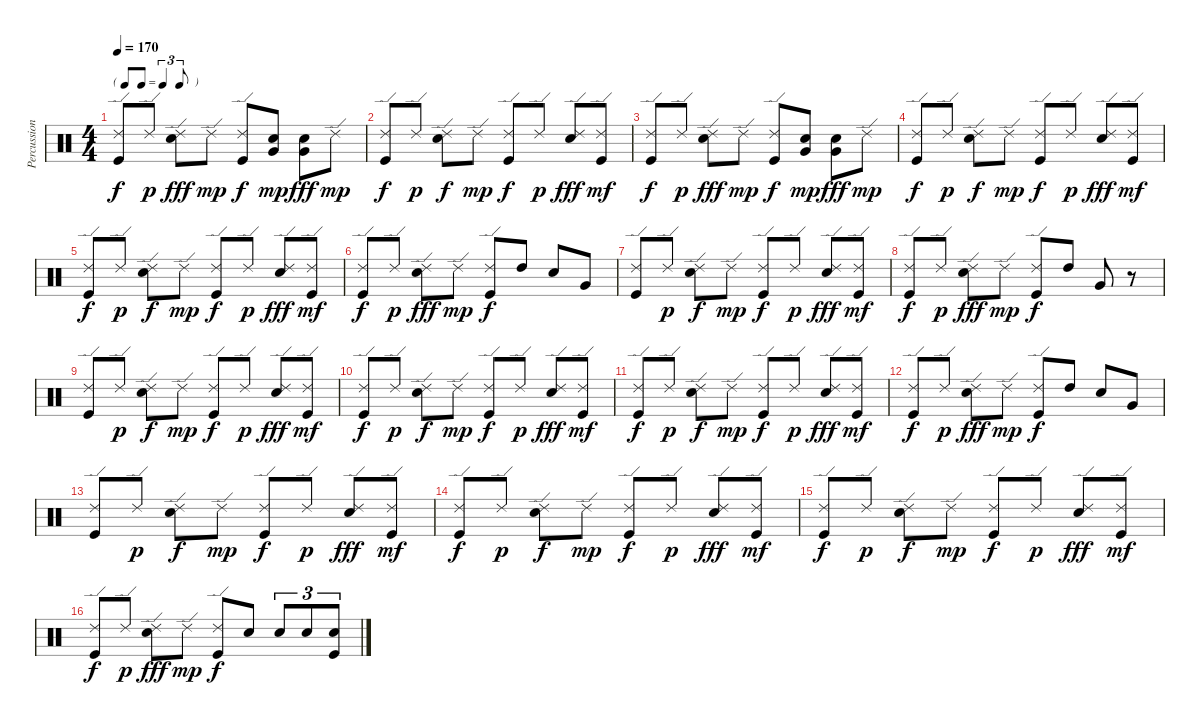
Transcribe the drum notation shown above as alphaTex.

\track ("Percussion" "Percussion") {instrument percussion}
\staff {score}
\articulation defaults
\ts (4 4)
\tf triplet8th
\tempo 170
\clef neutral
\ks c
("Ride (edge) 2" "Kick (hit)").8{dy f} "Ride (edge) 2".8{dy p} ("Ride (edge) 2" "Snare (hit) 2").8{dy fff} "Ride (edge) 2".8{dy mp} ("Ride (edge) 2" "Kick (hit)").8{dy f} ("Very Low Tom (hit)" "Snare (hit) 2").8{dy mp} ("Very Low Tom (hit)" "Snare (hit) 2").8{dy fff} "Ride (edge) 2".8{dy mp} |
("Ride (edge) 2" "Kick (hit)").8{dy f} "Ride (edge) 2".8{dy p} ("Ride (edge) 2" "Snare (hit) 2").8{dy f} "Ride (edge) 2".8{dy mp} ("Ride (edge) 2" "Kick (hit)").8{dy f} "Ride (edge) 2".8{dy p} ("Ride (edge) 2" "Snare (hit) 2").8{dy fff} ("Ride (edge) 2" "Kick (hit)").8{dy mf} |
("Ride (edge) 2" "Kick (hit)").8{dy f} "Ride (edge) 2".8{dy p} ("Ride (edge) 2" "Snare (hit) 2").8{dy fff} "Ride (edge) 2".8{dy mp} ("Ride (edge) 2" "Kick (hit)").8{dy f} ("Very Low Tom (hit)" "Snare (hit) 2").8{dy mp} ("Very Low Tom (hit)" "Snare (hit) 2").8{dy fff} "Ride (edge) 2".8{dy mp} |
("Ride (edge) 2" "Kick (hit)").8{dy f} "Ride (edge) 2".8{dy p} ("Ride (edge) 2" "Snare (hit) 2").8{dy f} "Ride (edge) 2".8{dy mp} ("Ride (edge) 2" "Kick (hit)").8{dy f} "Ride (edge) 2".8{dy p} ("Ride (edge) 2" "Snare (hit) 2").8{dy fff} ("Ride (edge) 2" "Kick (hit)").8{dy mf} |
("Ride (edge) 2" "Kick (hit)").8{dy f} "Ride (edge) 2".8{dy p} ("Ride (edge) 2" "Snare (hit) 2").8{dy f} "Ride (edge) 2".8{dy mp} ("Ride (edge) 2" "Kick (hit)").8{dy f} "Ride (edge) 2".8{dy p} ("Ride (edge) 2" "Snare (hit) 2").8{dy fff} ("Ride (edge) 2" "Kick (hit)").8{dy mf} |
("Ride (edge) 2" "Kick (hit)").8{dy f} "Ride (edge) 2".8{dy p} ("Ride (edge) 2" "Snare (hit) 2").8{dy fff} "Ride (edge) 2".8{dy mp} ("Ride (edge) 2" "Kick (hit)").8{dy f} "High Tom (hit)".8 "Snare (hit) 2".8 "Very Low Tom (hit)".8 |
("Ride (edge) 2" "Kick (hit)").8 "Ride (edge) 2".8{dy p} ("Ride (edge) 2" "Snare (hit) 2").8{dy f} "Ride (edge) 2".8{dy mp} ("Ride (edge) 2" "Kick (hit)").8{dy f} "Ride (edge) 2".8{dy p} ("Ride (edge) 2" "Snare (hit) 2").8{dy fff} ("Ride (edge) 2" "Kick (hit)").8{dy mf} |
("Ride (edge) 2" "Kick (hit)").8{dy f} "Ride (edge) 2".8{dy p} ("Ride (edge) 2" "Snare (hit) 2").8{dy fff} "Ride (edge) 2".8{dy mp} ("Ride (edge) 2" "Kick (hit)").8{dy f} "High Tom (hit)".8 "Very Low Tom (hit)".8 r.8 |
("Ride (edge) 2" "Kick (hit)").8 "Ride (edge) 2".8{dy p} ("Ride (edge) 2" "Snare (hit) 2").8{dy f} "Ride (edge) 2".8{dy mp} ("Ride (edge) 2" "Kick (hit)").8{dy f} "Ride (edge) 2".8{dy p} ("Ride (edge) 2" "Snare (hit) 2").8{dy fff} ("Ride (edge) 2" "Kick (hit)").8{dy mf} |
("Ride (edge) 2" "Kick (hit)").8{dy f} "Ride (edge) 2".8{dy p} ("Ride (edge) 2" "Snare (hit) 2").8{dy f} "Ride (edge) 2".8{dy mp} ("Ride (edge) 2" "Kick (hit)").8{dy f} "Ride (edge) 2".8{dy p} ("Ride (edge) 2" "Snare (hit) 2").8{dy fff} ("Ride (edge) 2" "Kick (hit)").8{dy mf} |
("Ride (edge) 2" "Kick (hit)").8{dy f} "Ride (edge) 2".8{dy p} ("Ride (edge) 2" "Snare (hit) 2").8{dy f} "Ride (edge) 2".8{dy mp} ("Ride (edge) 2" "Kick (hit)").8{dy f} "Ride (edge) 2".8{dy p} ("Ride (edge) 2" "Snare (hit) 2").8{dy fff} ("Ride (edge) 2" "Kick (hit)").8{dy mf} |
("Ride (edge) 2" "Kick (hit)").8{dy f} "Ride (edge) 2".8{dy p} ("Ride (edge) 2" "Snare (hit) 2").8{dy fff} "Ride (edge) 2".8{dy mp} ("Ride (edge) 2" "Kick (hit)").8{dy f} "High Tom (hit)".8 "Snare (hit) 2".8 "Very Low Tom (hit)".8 |
("Ride (edge) 2" "Kick (hit)").8 "Ride (edge) 2".8{dy p} ("Ride (edge) 2" "Snare (hit) 2").8{dy f} "Ride (edge) 2".8{dy mp} ("Ride (edge) 2" "Kick (hit)").8{dy f} "Ride (edge) 2".8{dy p} ("Ride (edge) 2" "Snare (hit) 2").8{dy fff} ("Ride (edge) 2" "Kick (hit)").8{dy mf} |
("Ride (edge) 2" "Kick (hit)").8{dy f} "Ride (edge) 2".8{dy p} ("Ride (edge) 2" "Snare (hit) 2").8{dy f} "Ride (edge) 2".8{dy mp} ("Ride (edge) 2" "Kick (hit)").8{dy f} "Ride (edge) 2".8{dy p} ("Ride (edge) 2" "Snare (hit) 2").8{dy fff} ("Ride (edge) 2" "Kick (hit)").8{dy mf} |
("Ride (edge) 2" "Kick (hit)").8{dy f} "Ride (edge) 2".8{dy p} ("Ride (edge) 2" "Snare (hit) 2").8{dy f} "Ride (edge) 2".8{dy mp} ("Ride (edge) 2" "Kick (hit)").8{dy f} "Ride (edge) 2".8{dy p} ("Ride (edge) 2" "Snare (hit) 2").8{dy fff} ("Ride (edge) 2" "Kick (hit)").8{dy mf} |
("Ride (edge) 2" "Kick (hit)").8{dy f volume 12} "Ride (edge) 2".8{dy p volume 12} ("Ride (edge) 2" "Snare (hit) 2").8{dy fff volume 12} "Ride (edge) 2".8{dy mp volume 11} ("Ride (edge) 2" "Kick (hit)").8{dy f volume 11} "Snare (hit) 2".8{volume 11} "Snare (hit) 2".8{tu (3 2) volume 10} "Snare (hit) 2".8{tu (3 2) volume 10} ("Snare (hit) 2" "Kick (hit)").8{tu (3 2) volume 10}
